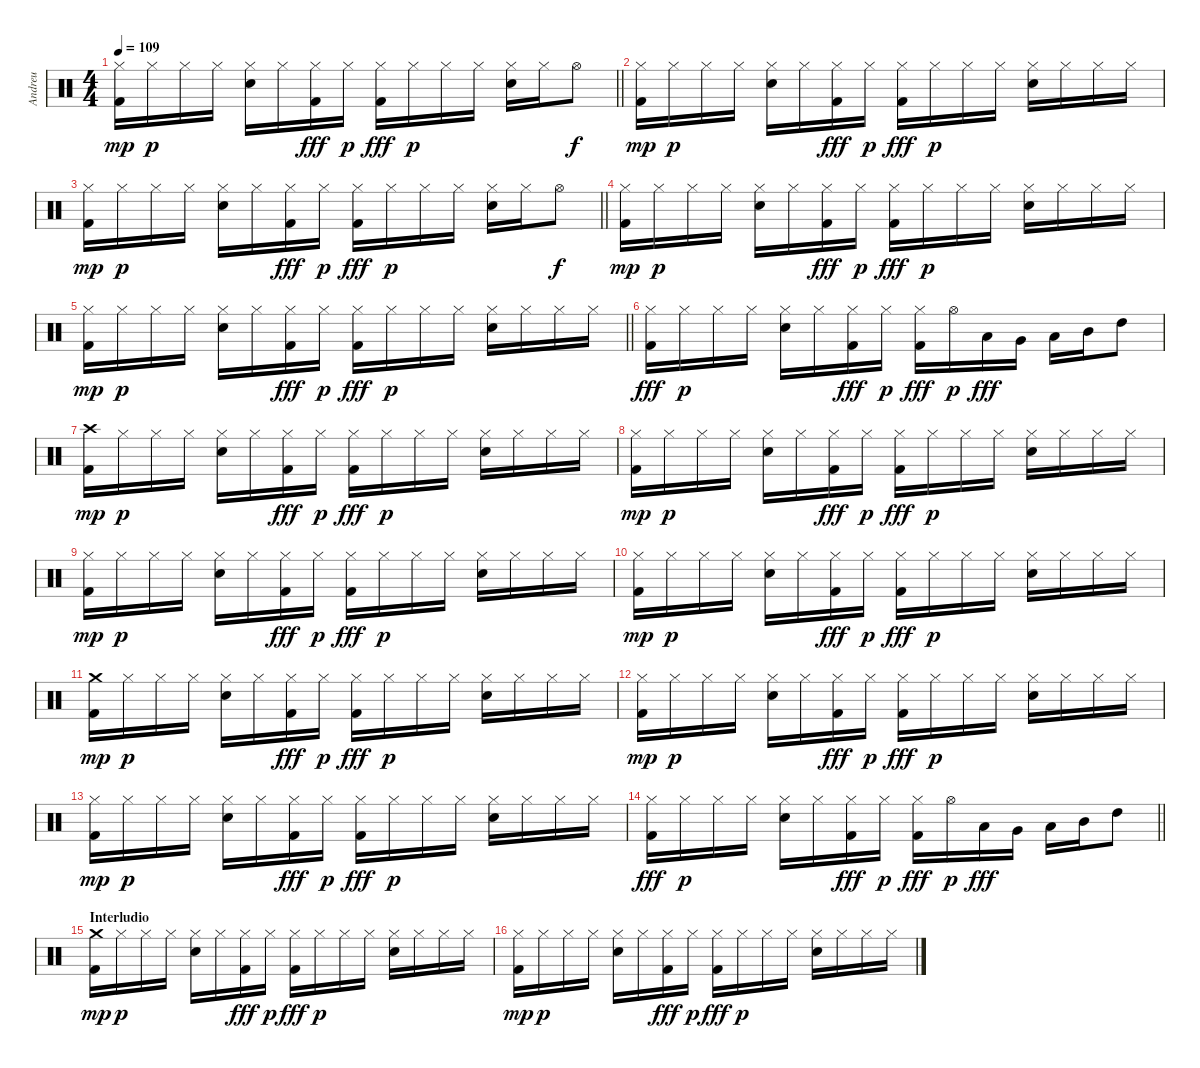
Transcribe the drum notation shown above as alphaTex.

\track ("Andreu" "Andreu") {instrument percussion}
\staff {score}
\articulation defaults
\ts (4 4)
\tempo 109
\clef neutral
\barLineRight lightlight
\ks c
("Hi-Hat (closed)" "Kick (hit) 2").16{dy mp} "Hi-Hat (closed)".16{dy p} "Hi-Hat (closed)".16 "Hi-Hat (closed)".16 ("Hi-Hat (closed)" "Snare (hit) 2").16 "Hi-Hat (closed)".16 ("Hi-Hat (closed)" "Kick (hit) 2").16{dy fff} "Hi-Hat (closed)".16{dy p} ("Hi-Hat (closed)" "Kick (hit) 2").16{dy fff} "Hi-Hat (closed)".16{dy p} "Hi-Hat (closed)".16 "Hi-Hat (closed)".16 ("Hi-Hat (closed)" "Snare (hit) 2").16 "Hi-Hat (closed)".16 "Hi-Hat (open)".8{dy f} |
("Hi-Hat (closed)" "Kick (hit) 2").16{dy mp} "Hi-Hat (closed)".16{dy p} "Hi-Hat (closed)".16 "Hi-Hat (closed)".16 ("Hi-Hat (closed)" "Snare (hit) 2").16 "Hi-Hat (closed)".16 ("Hi-Hat (closed)" "Kick (hit) 2").16{dy fff} "Hi-Hat (closed)".16{dy p} ("Hi-Hat (closed)" "Kick (hit) 2").16{dy fff} "Hi-Hat (closed)".16{dy p} "Hi-Hat (closed)".16 "Hi-Hat (closed)".16 ("Hi-Hat (closed)" "Snare (hit) 2").16 "Hi-Hat (closed)".16 "Hi-Hat (closed)".16 "Hi-Hat (closed)".16 |
\barLineRight lightlight
("Hi-Hat (closed)" "Kick (hit) 2").16{dy mp} "Hi-Hat (closed)".16{dy p} "Hi-Hat (closed)".16 "Hi-Hat (closed)".16 ("Hi-Hat (closed)" "Snare (hit) 2").16 "Hi-Hat (closed)".16 ("Hi-Hat (closed)" "Kick (hit) 2").16{dy fff} "Hi-Hat (closed)".16{dy p} ("Hi-Hat (closed)" "Kick (hit) 2").16{dy fff} "Hi-Hat (closed)".16{dy p} "Hi-Hat (closed)".16 "Hi-Hat (closed)".16 ("Hi-Hat (closed)" "Snare (hit) 2").16 "Hi-Hat (closed)".16 "Hi-Hat (open)".8{dy f} |
("Hi-Hat (closed)" "Kick (hit) 2").16{dy mp} "Hi-Hat (closed)".16{dy p} "Hi-Hat (closed)".16 "Hi-Hat (closed)".16 ("Hi-Hat (closed)" "Snare (hit) 2").16 "Hi-Hat (closed)".16 ("Hi-Hat (closed)" "Kick (hit) 2").16{dy fff} "Hi-Hat (closed)".16{dy p} ("Hi-Hat (closed)" "Kick (hit) 2").16{dy fff} "Hi-Hat (closed)".16{dy p} "Hi-Hat (closed)".16 "Hi-Hat (closed)".16 ("Hi-Hat (closed)" "Snare (hit) 2").16 "Hi-Hat (closed)".16 "Hi-Hat (closed)".16 "Hi-Hat (closed)".16 |
\barLineRight lightlight
("Hi-Hat (closed)" "Kick (hit) 2").16{dy mp} "Hi-Hat (closed)".16{dy p} "Hi-Hat (closed)".16 "Hi-Hat (closed)".16 ("Hi-Hat (closed)" "Snare (hit) 2").16 "Hi-Hat (closed)".16 ("Hi-Hat (closed)" "Kick (hit) 2").16{dy fff} "Hi-Hat (closed)".16{dy p} ("Hi-Hat (closed)" "Kick (hit) 2").16{dy fff} "Hi-Hat (closed)".16{dy p} "Hi-Hat (closed)".16 "Hi-Hat (closed)".16 ("Hi-Hat (closed)" "Snare (hit) 2").16 "Hi-Hat (closed)".16 "Hi-Hat (closed)".16 "Hi-Hat (closed)".16 |
("Hi-Hat (closed)" "Kick (hit) 2").16{dy fff} "Hi-Hat (closed)".16{dy p} "Hi-Hat (closed)".16 "Hi-Hat (closed)".16 ("Hi-Hat (closed)" "Snare (hit) 2").16 "Hi-Hat (closed)".16 ("Hi-Hat (closed)" "Kick (hit) 2").16{dy fff} "Hi-Hat (closed)".16{dy p} ("Hi-Hat (closed)" "Kick (hit) 2").16{dy fff} "Hi-Hat (open)".16{dy p} "Low Floor Tom (hit)".16{dy fff} "Very Low Tom (hit)".16 "Low Tom (hit)".16 "Mid Tom (hit)".16 "High Tom (hit)".8 |
("Crash high (hit)" "Kick (hit) 2").16{dy mp} "Hi-Hat (closed)".16{dy p} "Hi-Hat (closed)".16 "Hi-Hat (closed)".16 ("Hi-Hat (closed)" "Snare (hit) 2").16 "Hi-Hat (closed)".16 ("Hi-Hat (closed)" "Kick (hit) 2").16{dy fff} "Hi-Hat (closed)".16{dy p} ("Hi-Hat (closed)" "Kick (hit) 2").16{dy fff} "Hi-Hat (closed)".16{dy p} "Hi-Hat (closed)".16 "Hi-Hat (closed)".16 ("Hi-Hat (closed)" "Snare (hit) 2").16 "Hi-Hat (closed)".16 "Hi-Hat (closed)".16 "Hi-Hat (closed)".16 |
("Hi-Hat (closed)" "Kick (hit) 2").16{dy mp} "Hi-Hat (closed)".16{dy p} "Hi-Hat (closed)".16 "Hi-Hat (closed)".16 ("Hi-Hat (closed)" "Snare (hit) 2").16 "Hi-Hat (closed)".16 ("Hi-Hat (closed)" "Kick (hit) 2").16{dy fff} "Hi-Hat (closed)".16{dy p} ("Hi-Hat (closed)" "Kick (hit) 2").16{dy fff} "Hi-Hat (closed)".16{dy p} "Hi-Hat (closed)".16 "Hi-Hat (closed)".16 ("Hi-Hat (closed)" "Snare (hit) 2").16 "Hi-Hat (closed)".16 "Hi-Hat (closed)".16 "Hi-Hat (closed)".16 |
("Hi-Hat (closed)" "Kick (hit) 2").16{dy mp} "Hi-Hat (closed)".16{dy p} "Hi-Hat (closed)".16 "Hi-Hat (closed)".16 ("Hi-Hat (closed)" "Snare (hit) 2").16 "Hi-Hat (closed)".16 ("Hi-Hat (closed)" "Kick (hit) 2").16{dy fff} "Hi-Hat (closed)".16{dy p} ("Hi-Hat (closed)" "Kick (hit) 2").16{dy fff} "Hi-Hat (closed)".16{dy p} "Hi-Hat (closed)".16 "Hi-Hat (closed)".16 ("Hi-Hat (closed)" "Snare (hit) 2").16 "Hi-Hat (closed)".16 "Hi-Hat (closed)".16 "Hi-Hat (closed)".16 |
("Hi-Hat (closed)" "Kick (hit) 2").16{dy mp} "Hi-Hat (closed)".16{dy p} "Hi-Hat (closed)".16 "Hi-Hat (closed)".16 ("Hi-Hat (closed)" "Snare (hit) 2").16 "Hi-Hat (closed)".16 ("Hi-Hat (closed)" "Kick (hit) 2").16{dy fff} "Hi-Hat (closed)".16{dy p} ("Hi-Hat (closed)" "Kick (hit) 2").16{dy fff} "Hi-Hat (closed)".16{dy p} "Hi-Hat (closed)".16 "Hi-Hat (closed)".16 ("Hi-Hat (closed)" "Snare (hit) 2").16 "Hi-Hat (closed)".16 "Hi-Hat (closed)".16 "Hi-Hat (closed)".16 |
("Crash medium (hit)" "Kick (hit) 2").16{dy mp} "Hi-Hat (closed)".16{dy p} "Hi-Hat (closed)".16 "Hi-Hat (closed)".16 ("Hi-Hat (closed)" "Snare (hit) 2").16 "Hi-Hat (closed)".16 ("Hi-Hat (closed)" "Kick (hit) 2").16{dy fff} "Hi-Hat (closed)".16{dy p} ("Hi-Hat (closed)" "Kick (hit) 2").16{dy fff} "Hi-Hat (closed)".16{dy p} "Hi-Hat (closed)".16 "Hi-Hat (closed)".16 ("Hi-Hat (closed)" "Snare (hit) 2").16 "Hi-Hat (closed)".16 "Hi-Hat (closed)".16 "Hi-Hat (closed)".16 |
("Hi-Hat (closed)" "Kick (hit) 2").16{dy mp} "Hi-Hat (closed)".16{dy p} "Hi-Hat (closed)".16 "Hi-Hat (closed)".16 ("Hi-Hat (closed)" "Snare (hit) 2").16 "Hi-Hat (closed)".16 ("Hi-Hat (closed)" "Kick (hit) 2").16{dy fff} "Hi-Hat (closed)".16{dy p} ("Hi-Hat (closed)" "Kick (hit) 2").16{dy fff} "Hi-Hat (closed)".16{dy p} "Hi-Hat (closed)".16 "Hi-Hat (closed)".16 ("Hi-Hat (closed)" "Snare (hit) 2").16 "Hi-Hat (closed)".16 "Hi-Hat (closed)".16 "Hi-Hat (closed)".16 |
("Hi-Hat (closed)" "Kick (hit) 2").16{dy mp} "Hi-Hat (closed)".16{dy p} "Hi-Hat (closed)".16 "Hi-Hat (closed)".16 ("Hi-Hat (closed)" "Snare (hit) 2").16 "Hi-Hat (closed)".16 ("Hi-Hat (closed)" "Kick (hit) 2").16{dy fff} "Hi-Hat (closed)".16{dy p} ("Hi-Hat (closed)" "Kick (hit) 2").16{dy fff} "Hi-Hat (closed)".16{dy p} "Hi-Hat (closed)".16 "Hi-Hat (closed)".16 ("Hi-Hat (closed)" "Snare (hit) 2").16 "Hi-Hat (closed)".16 "Hi-Hat (closed)".16 "Hi-Hat (closed)".16 |
\barLineRight lightlight
("Hi-Hat (closed)" "Kick (hit) 2").16{dy fff} "Hi-Hat (closed)".16{dy p} "Hi-Hat (closed)".16 "Hi-Hat (closed)".16 ("Hi-Hat (closed)" "Snare (hit) 2").16 "Hi-Hat (closed)".16 ("Hi-Hat (closed)" "Kick (hit) 2").16{dy fff} "Hi-Hat (closed)".16{dy p} ("Hi-Hat (closed)" "Kick (hit) 2").16{dy fff} "Hi-Hat (open)".16{dy p} "Low Floor Tom (hit)".16{dy fff} "Very Low Tom (hit)".16 "Low Tom (hit)".16 "Mid Tom (hit)".16 "High Tom (hit)".8 |
\section ("" "Interludio")
("Crash medium (hit)" "Kick (hit) 2").16{dy mp} "Hi-Hat (closed)".16{dy p} "Hi-Hat (closed)".16 "Hi-Hat (closed)".16 ("Hi-Hat (closed)" "Snare (hit) 2").16 "Hi-Hat (closed)".16 ("Hi-Hat (closed)" "Kick (hit) 2").16{dy fff} "Hi-Hat (closed)".16{dy p} ("Hi-Hat (closed)" "Kick (hit) 2").16{dy fff} "Hi-Hat (closed)".16{dy p} "Hi-Hat (closed)".16 "Hi-Hat (closed)".16 ("Hi-Hat (closed)" "Snare (hit) 2").16 "Hi-Hat (closed)".16 "Hi-Hat (closed)".16 "Hi-Hat (closed)".16 |
("Hi-Hat (closed)" "Kick (hit) 2").16{dy mp} "Hi-Hat (closed)".16{dy p} "Hi-Hat (closed)".16 "Hi-Hat (closed)".16 ("Hi-Hat (closed)" "Snare (hit) 2").16 "Hi-Hat (closed)".16 ("Hi-Hat (closed)" "Kick (hit) 2").16{dy fff} "Hi-Hat (closed)".16{dy p} ("Hi-Hat (closed)" "Kick (hit) 2").16{dy fff} "Hi-Hat (closed)".16{dy p} "Hi-Hat (closed)".16 "Hi-Hat (closed)".16 ("Hi-Hat (closed)" "Snare (hit) 2").16 "Hi-Hat (closed)".16 "Hi-Hat (closed)".16 "Hi-Hat (closed)".16
